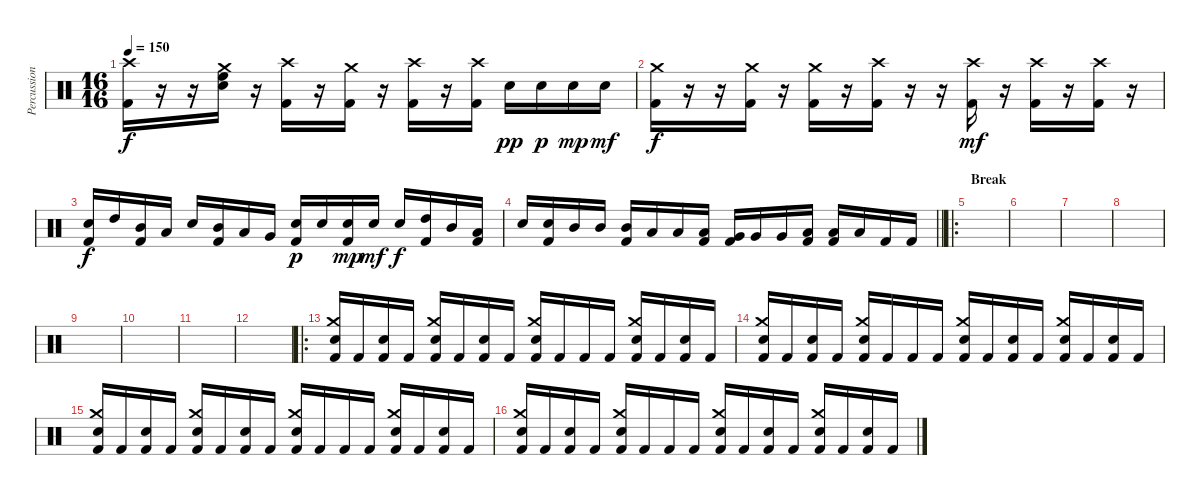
\track ("Percussions" "Percussion") {instrument percussion}
\staff {score}
\articulation defaults
\ts (16 16)
\tempo 150
\clef neutral
\ks c
("Crash high (hit)" "Kick (hit) 2").16{dy f} r.16 r.16 ("Crash medium (hit)" "High Floor Tom (hit)" "Electric Snare (hit)").16 r.16 ("Crash high (hit)" "Kick (hit) 2").16 r.16 ("Crash medium (hit)" "Kick (hit) 2").16 r.16 ("Crash high (hit)" "Kick (hit) 2").16 r.16 ("Crash high (hit)" "Kick (hit) 2").16 "Electric Snare (hit)".16{dy pp} "Electric Snare (hit)".16{dy p} "Electric Snare (hit)".16{dy mp} "Electric Snare (hit)".16{dy mf} |
("Crash medium (hit)" "Kick (hit) 2").16{dy f} r.16 r.16 ("Crash medium (hit)" "Kick (hit) 2").16 r.16 ("Crash medium (hit)" "Kick (hit) 2").16 r.16 ("Crash high (hit)" "Kick (hit) 2").16 r.16 r.16 ("Crash high (hit)" "Kick (hit) 2").16{dy mf} r.16 ("Crash high (hit)" "Kick (hit) 2").16 r.16 ("Crash high (hit)" "Kick (hit) 2").16 r.16 |
("Electric Snare (hit)" "Kick (hit) 2").16{dy f} "High Tom (hit)".16 ("Mid Tom (hit)" "Kick (hit) 2").16 "Low Tom (hit)".16 "Electric Snare (hit)".16 ("Mid Tom (hit)" "Kick (hit) 2").16 "Low Tom (hit)".16 "Very Low Tom (hit)".16 ("Electric Snare (hit)" "Kick (hit) 2").16{dy p} "Electric Snare (hit)".16 ("Electric Snare (hit)" "Kick (hit) 2").16{dy mp} "Electric Snare (hit)".16{dy mf} "Electric Snare (hit)".16{dy f} ("High Tom (hit)" "Kick (hit) 2").16 "Mid Tom (hit)".16 ("Low Tom (hit)" "Kick (hit) 2").16 |
\barLineRight lightlight "Electric Snare (hit)".16
("Electric Snare (hit)" "Kick (hit) 2").16 "Mid Tom (hit)".16 "Mid Tom (hit)".16 ("Mid Tom (hit)" "Kick (hit) 2").16 "Low Tom (hit)".16 "Low Tom (hit)".16 ("Low Tom (hit)" "Kick (hit) 2").16 ("Very Low Tom (hit)" "Kick (hit) 2").16 "Very Low Tom (hit)".16 "Very Low Tom (hit)".16 ("Low Floor Tom (hit)" "Kick (hit) 2").16 ("Low Floor Tom (hit)" "Kick (hit) 2").16 "Low Floor Tom (hit)".16 "Kick (hit) 2".16 "Kick (hit) 2".16 |
\ro
\section ("" "Break")
|
|
|
|
|
|
|
|
\ro
("Crash medium (hit)" "Electric Snare (hit)" "Kick (hit) 2").16 "Kick (hit) 2".16 ("Electric Snare (hit)" "Kick (hit) 2").16 "Kick (hit) 2".16 ("Crash medium (hit)" "Electric Snare (hit)" "Kick (hit) 2").16 "Kick (hit) 2".16 ("Electric Snare (hit)" "Kick (hit) 2").16 "Kick (hit) 2".16 ("Crash medium (hit)" "Electric Snare (hit)" "Kick (hit) 2").16 "Kick (hit) 2".16 "Kick (hit) 2".16 "Kick (hit) 2".16 ("Crash medium (hit)" "Electric Snare (hit)" "Kick (hit) 2").16 "Kick (hit) 2".16 ("Electric Snare (hit)" "Kick (hit) 2").16 "Kick (hit) 2".16 |
("Crash medium (hit)" "Electric Snare (hit)" "Kick (hit) 2").16 "Kick (hit) 2".16 ("Electric Snare (hit)" "Kick (hit) 2").16 "Kick (hit) 2".16 ("Crash medium (hit)" "Electric Snare (hit)" "Kick (hit) 2").16 "Kick (hit) 2".16 "Kick (hit) 2".16 "Kick (hit) 2".16 ("Crash medium (hit)" "Electric Snare (hit)" "Kick (hit) 2").16 "Kick (hit) 2".16 ("Electric Snare (hit)" "Kick (hit) 2").16 "Kick (hit) 2".16 ("Crash medium (hit)" "Electric Snare (hit)" "Kick (hit) 2").16 "Kick (hit) 2".16 ("Electric Snare (hit)" "Kick (hit) 2").16 "Kick (hit) 2".16 |
("Crash medium (hit)" "Electric Snare (hit)" "Kick (hit) 2").16 "Kick (hit) 2".16 ("Electric Snare (hit)" "Kick (hit) 2").16 "Kick (hit) 2".16 ("Crash medium (hit)" "Electric Snare (hit)" "Kick (hit) 2").16 "Kick (hit) 2".16 ("Electric Snare (hit)" "Kick (hit) 2").16 "Kick (hit) 2".16 ("Crash medium (hit)" "Electric Snare (hit)" "Kick (hit) 2").16 "Kick (hit) 2".16 "Kick (hit) 2".16 "Kick (hit) 2".16 ("Crash medium (hit)" "Electric Snare (hit)" "Kick (hit) 2").16 "Kick (hit) 2".16 ("Electric Snare (hit)" "Kick (hit) 2").16 "Kick (hit) 2".16 |
("Crash medium (hit)" "Electric Snare (hit)" "Kick (hit) 2").16 "Kick (hit) 2".16 ("Electric Snare (hit)" "Kick (hit) 2").16 "Kick (hit) 2".16 ("Crash medium (hit)" "Electric Snare (hit)" "Kick (hit) 2").16 "Kick (hit) 2".16 "Kick (hit) 2".16 "Kick (hit) 2".16 ("Crash medium (hit)" "Electric Snare (hit)" "Kick (hit) 2").16 "Kick (hit) 2".16 ("Electric Snare (hit)" "Kick (hit) 2").16 "Kick (hit) 2".16 ("Crash medium (hit)" "Electric Snare (hit)" "Kick (hit) 2").16 "Kick (hit) 2".16 ("Electric Snare (hit)" "Kick (hit) 2").16 "Kick (hit) 2".16
